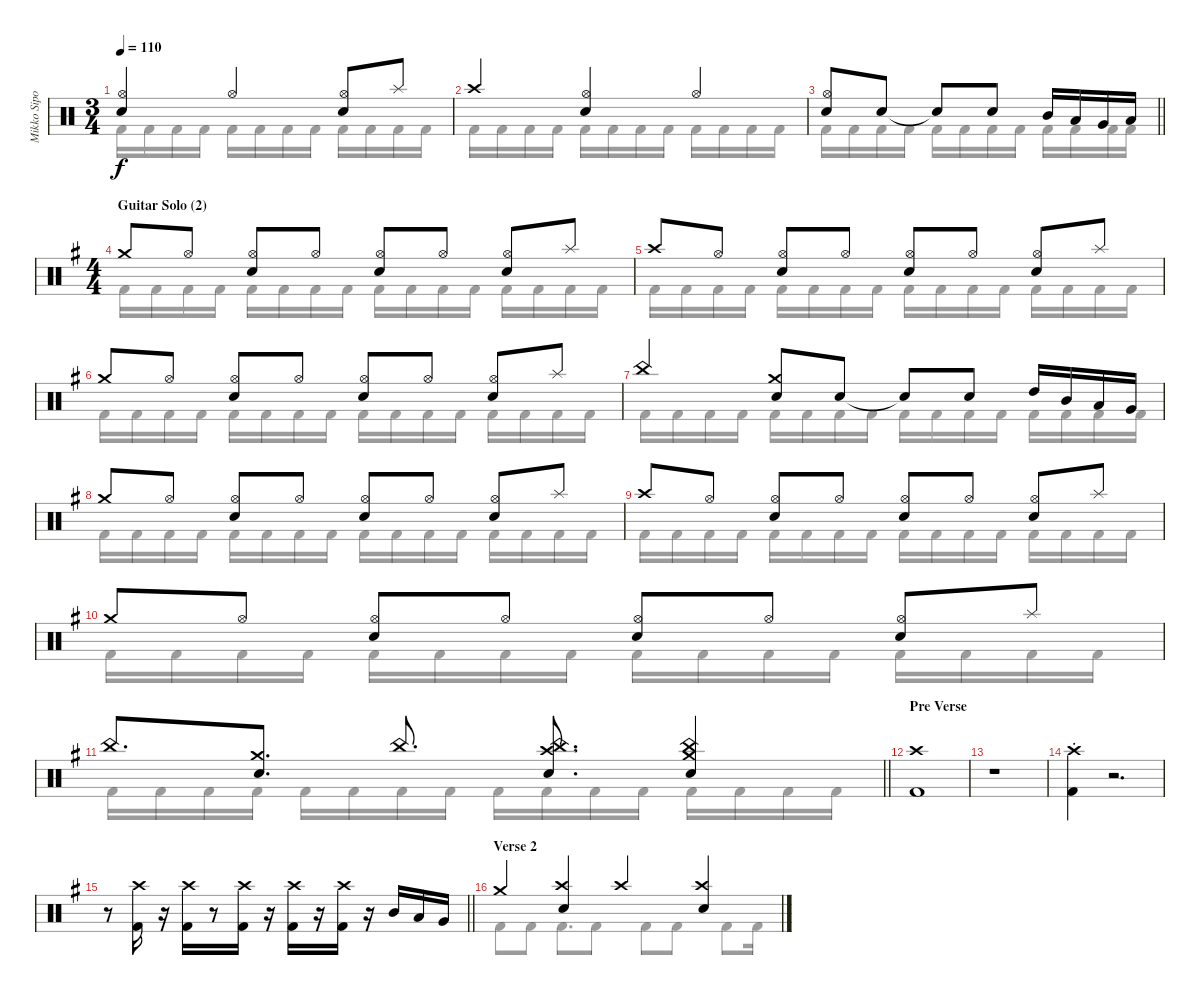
\track ("Mikko Sipola (drums)" "Mikko Sipo") {instrument percussion}
\staff {score}
\articulation defaults
\voice
\ts (3 4)
\tempo 110
\clef neutral
\ks aminor
("Hi-Hat (open)" "Electric Snare (hit)").4{dy f} "Hi-Hat (open)".4 ("Hi-Hat (open)" "Electric Snare (hit)").8 "Splash (hit)".8 |
"Crash high (hit)".4 ("Hi-Hat (open)" "Electric Snare (hit)").4 "Hi-Hat (open)".4 |
\barLineRight lightlight
("Hi-Hat (open)" "Electric Snare (hit)").8 "Electric Snare (hit)".8 "Electric Snare (hit)"{t}.8 "Electric Snare (hit)".8 "Mid Tom (hit)".16 "Low Tom (hit)".16 "Very Low Tom (hit)".16 "Low Floor Tom (hit)".16 |
\ts (4 4)
\section ("" "Guitar Solo (2)")
\ks eminor "Crash medium (hit)".8 "Hi-Hat (open)".8
("Hi-Hat (open)" "Electric Snare (hit)").8 "Hi-Hat (open)".8 ("Hi-Hat (open)" "Electric Snare (hit)").8 "Hi-Hat (open)".8 ("Hi-Hat (open)" "Electric Snare (hit)").8 "Splash (hit)".8 |
"Crash high (hit)".8 "Hi-Hat (open)".8 ("Hi-Hat (open)" "Electric Snare (hit)").8 "Hi-Hat (open)".8 ("Hi-Hat (open)" "Electric Snare (hit)").8 "Hi-Hat (open)".8 ("Hi-Hat (open)" "Electric Snare (hit)").8 "Splash (hit)".8 |
"Crash medium (hit)".8 "Hi-Hat (open)".8 ("Hi-Hat (open)" "Electric Snare (hit)").8 "Hi-Hat (open)".8 ("Hi-Hat (open)" "Electric Snare (hit)").8 "Hi-Hat (open)".8 ("Hi-Hat (open)" "Electric Snare (hit)").8 "Splash (hit)".8 |
"China (hit)".4 ("Crash medium (hit)" "Electric Snare (hit)").8 "Electric Snare (hit)".8 "Snare (hit)"{t}.8 "Electric Snare (hit)".8 "High Tom (hit)".16 "Mid Tom (hit)".16 "Low Tom (hit)".16 "Very Low Tom (hit)".16 |
"Crash medium (hit)".8 "Hi-Hat (open)".8 ("Hi-Hat (open)" "Electric Snare (hit)").8 "Hi-Hat (open)".8 ("Hi-Hat (open)" "Electric Snare (hit)").8 "Hi-Hat (open)".8 ("Hi-Hat (open)" "Electric Snare (hit)").8 "Splash (hit)".8 |
"Crash high (hit)".8 "Hi-Hat (open)".8 ("Hi-Hat (open)" "Electric Snare (hit)").8 "Hi-Hat (open)".8 ("Hi-Hat (open)" "Electric Snare (hit)").8 "Hi-Hat (open)".8 ("Hi-Hat (open)" "Electric Snare (hit)").8 "Splash (hit)".8 |
"Crash medium (hit)".8 "Hi-Hat (open)".8 ("Hi-Hat (open)" "Electric Snare (hit)").8 "Hi-Hat (open)".8 ("Hi-Hat (open)" "Electric Snare (hit)").8 "Hi-Hat (open)".8 ("Hi-Hat (open)" "Electric Snare (hit)").8 "Splash (hit)".8 |
\barLineRight lightlight "China (hit)".8{d}
("Crash medium (hit)" "Electric Snare (hit)").8{d} "China (hit)".8{d} ("Crash high (hit)" "China (hit)" "Electric Snare (hit)").8{d} ("Crash medium (hit)" "China (hit)" "Electric Snare (hit)").4 |
\section ("" "Pre Verse")
("Crash high (hit)" "Kick (hit) 2").1 |
r.1 |
("Crash high (hit)"{st} "Kick (hit) 2"{st}).4 r.2{d} |
\barLineRight lightlight
r.8 ("Crash high (hit)" "Kick (hit) 2").16 r.16 ("Crash high (hit)" "Kick (hit) 2").16 r.8 ("Crash high (hit)" "Kick (hit) 2").16 r.16 ("Crash high (hit)" "Kick (hit) 2").16 r.16 ("Crash high (hit)" "Kick (hit) 2").16 r.16 "Mid Tom (hit)".16 "Low Tom (hit)".16 "Very Low Tom (hit)".16 |
\section ("" "Verse 2")
"Crash medium (hit)".4 ("Crash high (hit)" "Electric Snare (hit)").4 "Crash high (hit)".4 ("Crash high (hit)" "Electric Snare (hit)").4
\voice
\clef neutral
\ottava regular
\simile none
\ks aminor "Kick (hit) 2".16{dy f} "Kick (hit) 2".16 "Kick (hit) 2".16 "Kick (hit) 2".16 "Kick (hit) 2".16 "Kick (hit) 2".16 "Kick (hit) 2".16 "Kick (hit) 2".16 "Kick (hit) 2".16 "Kick (hit) 2".16 "Kick (hit) 2".16 "Kick (hit) 2".16
|
"Kick (hit) 2".16 "Kick (hit) 2".16 "Kick (hit) 2".16 "Kick (hit) 2".16 "Kick (hit) 2".16 "Kick (hit) 2".16 "Kick (hit) 2".16 "Kick (hit) 2".16 "Kick (hit) 2".16 "Kick (hit) 2".16 "Kick (hit) 2".16 "Kick (hit) 2".16 |
\barLineRight lightlight "Kick (hit) 2".16 "Kick (hit) 2".16 "Kick (hit) 2".16 "Kick (hit) 2".16 "Kick (hit) 2".16 "Kick (hit) 2".16 "Kick (hit) 2".16 "Kick (hit) 2".16 "Kick (hit) 2".16 "Kick (hit) 2".16 "Kick (hit) 2".16 "Kick (hit) 2".16
|
\ks eminor "Kick (hit) 2".16 "Kick (hit) 2".16 "Kick (hit) 2".16 "Kick (hit) 2".16 "Kick (hit) 2".16 "Kick (hit) 2".16 "Kick (hit) 2".16 "Kick (hit) 2".16 "Kick (hit) 2".16 "Kick (hit) 2".16 "Kick (hit) 2".16 "Kick (hit) 2".16 "Kick (hit) 2".16 "Kick (hit) 2".16 "Kick (hit) 2".16 "Kick (hit) 2".16
|
"Kick (hit) 2".16 "Kick (hit) 2".16 "Kick (hit) 2".16 "Kick (hit) 2".16 "Kick (hit) 2".16 "Kick (hit) 2".16 "Kick (hit) 2".16 "Kick (hit) 2".16 "Kick (hit) 2".16 "Kick (hit) 2".16 "Kick (hit) 2".16 "Kick (hit) 2".16 "Kick (hit) 2".16 "Kick (hit) 2".16 "Kick (hit) 2".16 "Kick (hit) 2".16 |
"Kick (hit) 2".16 "Kick (hit) 2".16 "Kick (hit) 2".16 "Kick (hit) 2".16 "Kick (hit) 2".16 "Kick (hit) 2".16 "Kick (hit) 2".16 "Kick (hit) 2".16 "Kick (hit) 2".16 "Kick (hit) 2".16 "Kick (hit) 2".16 "Kick (hit) 2".16 "Kick (hit) 2".16 "Kick (hit) 2".16 "Kick (hit) 2".16 "Kick (hit) 2".16 |
"Kick (hit) 2".16 "Kick (hit) 2".16 "Kick (hit) 2".16 "Kick (hit) 2".16 "Kick (hit) 2".16 "Kick (hit) 2".16 "Kick (hit) 2".16 "Kick (hit) 2".16 "Kick (hit) 2".16 "Kick (hit) 2".16 "Kick (hit) 2".16 "Kick (hit) 2".16 "Kick (hit) 2".16 "Kick (hit) 2".16 "Kick (hit) 2".16 "Kick (hit) 2".16 |
"Kick (hit) 2".16 "Kick (hit) 2".16 "Kick (hit) 2".16 "Kick (hit) 2".16 "Kick (hit) 2".16 "Kick (hit) 2".16 "Kick (hit) 2".16 "Kick (hit) 2".16 "Kick (hit) 2".16 "Kick (hit) 2".16 "Kick (hit) 2".16 "Kick (hit) 2".16 "Kick (hit) 2".16 "Kick (hit) 2".16 "Kick (hit) 2".16 "Kick (hit) 2".16 |
"Kick (hit) 2".16 "Kick (hit) 2".16 "Kick (hit) 2".16 "Kick (hit) 2".16 "Kick (hit) 2".16 "Kick (hit) 2".16 "Kick (hit) 2".16 "Kick (hit) 2".16 "Kick (hit) 2".16 "Kick (hit) 2".16 "Kick (hit) 2".16 "Kick (hit) 2".16 "Kick (hit) 2".16 "Kick (hit) 2".16 "Kick (hit) 2".16 "Kick (hit) 2".16 |
"Kick (hit) 2".16 "Kick (hit) 2".16 "Kick (hit) 2".16 "Kick (hit) 2".16 "Kick (hit) 2".16 "Kick (hit) 2".16 "Kick (hit) 2".16 "Kick (hit) 2".16 "Kick (hit) 2".16 "Kick (hit) 2".16 "Kick (hit) 2".16 "Kick (hit) 2".16 "Kick (hit) 2".16 "Kick (hit) 2".16 "Kick (hit) 2".16 "Kick (hit) 2".16 |
\barLineRight lightlight "Kick (hit) 2".16 "Kick (hit) 2".16 "Kick (hit) 2".16 "Kick (hit) 2".16 "Kick (hit) 2".16 "Kick (hit) 2".16 "Kick (hit) 2".16 "Kick (hit) 2".16 "Kick (hit) 2".16 "Kick (hit) 2".16 "Kick (hit) 2".16 "Kick (hit) 2".16 "Kick (hit) 2".16 "Kick (hit) 2".16 "Kick (hit) 2".16 "Kick (hit) 2".16
|
|
|
|
\barLineRight lightlight
|
"Kick (hit) 2".8 "Kick (hit) 2".8 "Kick (hit) 2".8{d} "Kick (hit) 2".8 "Kick (hit) 2".8 "Kick (hit) 2".8 "Kick (hit) 2".8 "Kick (hit) 2".16
